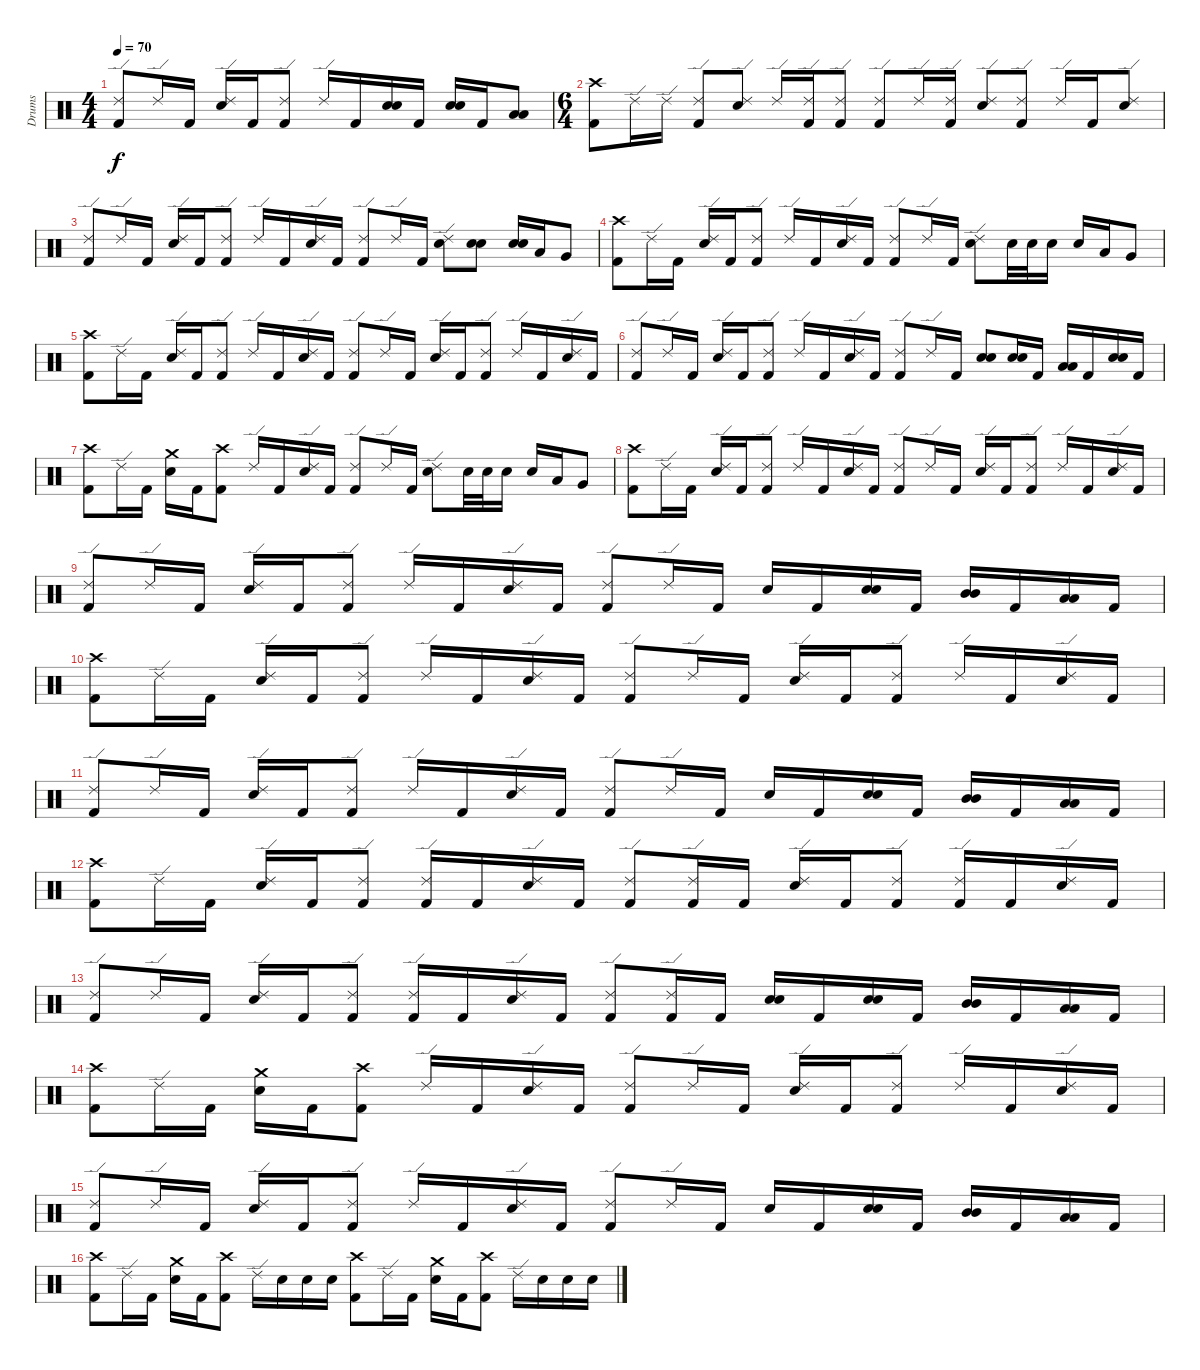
\track ("Drums" "Drums") {instrument percussion}
\staff {score}
\articulation defaults
\ts (4 4)
\tempo 70
\clef neutral
\ks c
("Ride (edge) 2" "Kick (hit) 2").8{dy f} "Ride (edge) 2".16 "Kick (hit) 2".16 ("Ride (edge) 2" "Electric Snare (hit)").16 "Kick (hit) 2".16 ("Ride (edge) 2" "Kick (hit) 2").8 "Ride (edge) 2".16 "Kick (hit) 2".16 ("Electric Snare (hit)" "Electric Snare (hit)").16{bu 60} "Kick (hit) 2".16 ("Electric Snare (hit)" "Electric Snare (hit)").16{bu 60} "Kick (hit) 2".16 ("Low Tom (hit)" "Low Tom (hit)").8{bu 60} |
\ts (6 4)
("Crash high (hit)" "Kick (hit) 2").8 "Ride (edge) 2".16 "Ride (edge) 2".16 ("Ride (edge) 2" "Kick (hit) 2").8 ("Ride (edge) 2" "Electric Snare (hit)").8 "Ride (edge) 2".16 ("Ride (edge) 2" "Kick (hit) 2").16 ("Ride (edge) 2" "Kick (hit) 2").8 ("Ride (edge) 2" "Kick (hit) 2").8 "Ride (edge) 2".16 ("Ride (edge) 2" "Kick (hit) 2").16 ("Ride (edge) 2" "Electric Snare (hit)").8 ("Ride (edge) 2" "Kick (hit) 2").8 "Ride (edge) 2".16 "Kick (hit) 2".16 ("Ride (edge) 2" "Electric Snare (hit)").8 |
("Ride (edge) 2" "Kick (hit) 2").8 "Ride (edge) 2".16 "Kick (hit) 2".16 ("Ride (edge) 2" "Electric Snare (hit)").16 "Kick (hit) 2".16 ("Ride (edge) 2" "Kick (hit) 2").8 "Ride (edge) 2".16 "Kick (hit) 2".16 ("Ride (edge) 2" "Electric Snare (hit)").16 "Kick (hit) 2".16 ("Ride (edge) 2" "Kick (hit) 2").8 "Ride (edge) 2".16 "Kick (hit) 2".16 ("Ride (edge) 2" "Electric Snare (hit)").8 ("Electric Snare (hit)" "Electric Snare (hit)").8{bu 60} ("Electric Snare (hit)" "Electric Snare (hit)").16{bu 60} "Low Tom (hit)".16 "Very Low Tom (hit)".8 |
("Crash high (hit)" "Kick (hit) 2").8 "Ride (edge) 2".16 "Kick (hit) 2".16 ("Ride (edge) 2" "Electric Snare (hit)").16 "Kick (hit) 2".16 ("Ride (edge) 2" "Kick (hit) 2").8 "Ride (edge) 2".16 "Kick (hit) 2".16 ("Ride (edge) 2" "Electric Snare (hit)").16 "Kick (hit) 2".16 ("Ride (edge) 2" "Kick (hit) 2").8 "Ride (edge) 2".16 "Kick (hit) 2".16 ("Ride (edge) 2" "Electric Snare (hit)").8 "Electric Snare (hit)".32 "Electric Snare (hit)".32 "Electric Snare (hit)".16 "Electric Snare (hit)".16 "Low Tom (hit)".16 "Very Low Tom (hit)".8 |
("Crash high (hit)" "Kick (hit) 2").8 "Ride (edge) 2".16 "Kick (hit) 2".16 ("Ride (edge) 2" "Electric Snare (hit)").16 "Kick (hit) 2".16 ("Ride (edge) 2" "Kick (hit) 2").8 "Ride (edge) 2".16 "Kick (hit) 2".16 ("Ride (edge) 2" "Electric Snare (hit)").16 "Kick (hit) 2".16 ("Ride (edge) 2" "Kick (hit) 2").8 "Ride (edge) 2".16 "Kick (hit) 2".16 ("Ride (edge) 2" "Electric Snare (hit)").16 "Kick (hit) 2".16 ("Ride (edge) 2" "Kick (hit) 2").8 "Ride (edge) 2".16 "Kick (hit) 2".16 ("Ride (edge) 2" "Electric Snare (hit)").16 "Kick (hit) 2".16 |
("Ride (edge) 2" "Kick (hit) 2").8 "Ride (edge) 2".16 "Kick (hit) 2".16 ("Ride (edge) 2" "Electric Snare (hit)").16 "Kick (hit) 2".16 ("Ride (edge) 2" "Kick (hit) 2").8 "Ride (edge) 2".16 "Kick (hit) 2".16 ("Ride (edge) 2" "Electric Snare (hit)").16 "Kick (hit) 2".16 ("Ride (edge) 2" "Kick (hit) 2").8 "Ride (edge) 2".16 "Kick (hit) 2".16 ("Electric Snare (hit)" "Electric Snare (hit)").8{bu 60} ("Electric Snare (hit)" "Electric Snare (hit)").16{bu 60} "Kick (hit) 2".16 ("Low Tom (hit)" "Low Tom (hit)").16{bu 60} "Kick (hit) 2".16 ("Electric Snare (hit)" "Electric Snare (hit)").16{bu 60} "Kick (hit) 2".16 |
("Crash high (hit)" "Kick (hit) 2").8 "Ride (edge) 2".16 "Kick (hit) 2".16 ("Crash medium (hit)" "Electric Snare (hit)").16 "Kick (hit) 2".16 ("Crash high (hit)" "Kick (hit) 2").8 "Ride (edge) 2".16 "Kick (hit) 2".16 ("Ride (edge) 2" "Electric Snare (hit)").16 "Kick (hit) 2".16 ("Ride (edge) 2" "Kick (hit) 2").8 "Ride (edge) 2".16 "Kick (hit) 2".16 ("Ride (edge) 2" "Electric Snare (hit)").8 "Electric Snare (hit)".32 "Electric Snare (hit)".32 "Electric Snare (hit)".16 "Electric Snare (hit)".16 "Low Tom (hit)".16 "Very Low Tom (hit)".8 |
("Crash high (hit)" "Kick (hit) 2").8 "Ride (edge) 2".16 "Kick (hit) 2".16 ("Ride (edge) 2" "Electric Snare (hit)").16 "Kick (hit) 2".16 ("Ride (edge) 2" "Kick (hit) 2").8 "Ride (edge) 2".16 "Kick (hit) 2".16 ("Ride (edge) 2" "Electric Snare (hit)").16 "Kick (hit) 2".16 ("Ride (edge) 2" "Kick (hit) 2").8 "Ride (edge) 2".16 "Kick (hit) 2".16 ("Ride (edge) 2" "Electric Snare (hit)").16 "Kick (hit) 2".16 ("Ride (edge) 2" "Kick (hit) 2").8 "Ride (edge) 2".16 "Kick (hit) 2".16 ("Ride (edge) 2" "Electric Snare (hit)").16 "Kick (hit) 2".16 |
("Ride (edge) 2" "Kick (hit) 2").8 "Ride (edge) 2".16 "Kick (hit) 2".16 ("Ride (edge) 2" "Electric Snare (hit)").16 "Kick (hit) 2".16 ("Ride (edge) 2" "Kick (hit) 2").8 "Ride (edge) 2".16 "Kick (hit) 2".16 ("Ride (edge) 2" "Electric Snare (hit)").16 "Kick (hit) 2".16 ("Ride (edge) 2" "Kick (hit) 2").8 "Ride (edge) 2".16 "Kick (hit) 2".16 "Electric Snare (hit)".16 "Kick (hit) 2".16 ("Electric Snare (hit)" "Electric Snare (hit)").16{bu 60} "Kick (hit) 2".16 ("Mid Tom (hit)" "Mid Tom (hit)").16{bu 60} "Kick (hit) 2".16 ("Low Tom (hit)" "Low Tom (hit)").16{bu 60} "Kick (hit) 2".16 |
("Crash high (hit)" "Kick (hit) 2").8 "Ride (edge) 2".16 "Kick (hit) 2".16 ("Ride (edge) 2" "Electric Snare (hit)").16 "Kick (hit) 2".16 ("Ride (edge) 2" "Kick (hit) 2").8 "Ride (edge) 2".16 "Kick (hit) 2".16 ("Ride (edge) 2" "Electric Snare (hit)").16 "Kick (hit) 2".16 ("Ride (edge) 2" "Kick (hit) 2").8 "Ride (edge) 2".16 "Kick (hit) 2".16 ("Ride (edge) 2" "Electric Snare (hit)").16 "Kick (hit) 2".16 ("Ride (edge) 2" "Kick (hit) 2").8 "Ride (edge) 2".16 "Kick (hit) 2".16 ("Ride (edge) 2" "Electric Snare (hit)").16 "Kick (hit) 2".16 |
("Ride (edge) 2" "Kick (hit) 2").8 "Ride (edge) 2".16 "Kick (hit) 2".16 ("Ride (edge) 2" "Electric Snare (hit)").16 "Kick (hit) 2".16 ("Ride (edge) 2" "Kick (hit) 2").8 "Ride (edge) 2".16 "Kick (hit) 2".16 ("Ride (edge) 2" "Electric Snare (hit)").16 "Kick (hit) 2".16 ("Ride (edge) 2" "Kick (hit) 2").8 "Ride (edge) 2".16 "Kick (hit) 2".16 "Electric Snare (hit)".16 "Kick (hit) 2".16 ("Electric Snare (hit)" "Electric Snare (hit)").16{bu 60} "Kick (hit) 2".16 ("Mid Tom (hit)" "Mid Tom (hit)").16{bu 60} "Kick (hit) 2".16 ("Low Tom (hit)" "Low Tom (hit)").16{bu 60} "Kick (hit) 2".16 |
("Crash high (hit)" "Kick (hit) 2").8 "Ride (edge) 2".16 "Kick (hit) 2".16 ("Ride (edge) 2" "Electric Snare (hit)").16 "Kick (hit) 2".16 ("Ride (edge) 2" "Kick (hit) 2").8 ("Ride (edge) 2" "Kick (hit) 2").16 "Kick (hit) 2".16 ("Ride (edge) 2" "Electric Snare (hit)").16 "Kick (hit) 2".16 ("Ride (edge) 2" "Kick (hit) 2").8 ("Ride (edge) 2" "Kick (hit) 2").16 "Kick (hit) 2".16 ("Ride (edge) 2" "Electric Snare (hit)").16 "Kick (hit) 2".16 ("Ride (edge) 2" "Kick (hit) 2").8 ("Ride (edge) 2" "Kick (hit) 2").16 "Kick (hit) 2".16 ("Ride (edge) 2" "Electric Snare (hit)").16 "Kick (hit) 2".16 |
("Ride (edge) 2" "Kick (hit) 2").8 "Ride (edge) 2".16 "Kick (hit) 2".16 ("Ride (edge) 2" "Electric Snare (hit)").16 "Kick (hit) 2".16 ("Ride (edge) 2" "Kick (hit) 2").8 ("Ride (edge) 2" "Kick (hit) 2").16 "Kick (hit) 2".16 ("Ride (edge) 2" "Electric Snare (hit)").16 "Kick (hit) 2".16 ("Ride (edge) 2" "Kick (hit) 2").8 ("Ride (edge) 2" "Kick (hit) 2").16 "Kick (hit) 2".16 ("Electric Snare (hit)" "Electric Snare (hit)").16{bu 60} "Kick (hit) 2".16 ("Electric Snare (hit)" "Electric Snare (hit)").16{bu 60} "Kick (hit) 2".16 ("Mid Tom (hit)" "Mid Tom (hit)").16{bu 60} "Kick (hit) 2".16 ("Low Tom (hit)" "Low Tom (hit)").16{bu 60} "Kick (hit) 2".16 |
("Crash high (hit)" "Kick (hit) 2").8 "Ride (edge) 2".16 "Kick (hit) 2".16 ("Crash medium (hit)" "Electric Snare (hit)").16 "Kick (hit) 2".16 ("Crash high (hit)" "Kick (hit) 2").8 "Ride (edge) 2".16 "Kick (hit) 2".16 ("Ride (edge) 2" "Electric Snare (hit)").16 "Kick (hit) 2".16 ("Ride (edge) 2" "Kick (hit) 2").8 "Ride (edge) 2".16 "Kick (hit) 2".16 ("Ride (edge) 2" "Electric Snare (hit)").16 "Kick (hit) 2".16 ("Ride (edge) 2" "Kick (hit) 2").8 "Ride (edge) 2".16 "Kick (hit) 2".16 ("Ride (edge) 2" "Electric Snare (hit)").16 "Kick (hit) 2".16 |
("Ride (edge) 2" "Kick (hit) 2").8 "Ride (edge) 2".16 "Kick (hit) 2".16 ("Ride (edge) 2" "Electric Snare (hit)").16 "Kick (hit) 2".16 ("Ride (edge) 2" "Kick (hit) 2").8 "Ride (edge) 2".16 "Kick (hit) 2".16 ("Ride (edge) 2" "Electric Snare (hit)").16 "Kick (hit) 2".16 ("Ride (edge) 2" "Kick (hit) 2").8 "Ride (edge) 2".16 "Kick (hit) 2".16 "Electric Snare (hit)".16 "Kick (hit) 2".16 ("Electric Snare (hit)" "Electric Snare (hit)").16{bu 60} "Kick (hit) 2".16 ("Mid Tom (hit)" "Mid Tom (hit)").16{bu 60} "Kick (hit) 2".16 ("Low Tom (hit)" "Low Tom (hit)").16{bu 60} "Kick (hit) 2".16 |
("Crash high (hit)" "Kick (hit) 2").8 "Ride (edge) 2".16 "Kick (hit) 2".16 ("Crash medium (hit)" "Electric Snare (hit)").16 "Kick (hit) 2".16 ("Crash high (hit)" "Kick (hit) 2").8 "Ride (edge) 2".16 "Electric Snare (hit)".16 "Electric Snare (hit)".16 "Electric Snare (hit)".16 ("Crash high (hit)" "Kick (hit) 2").8 "Ride (edge) 2".16 "Kick (hit) 2".16 ("Crash medium (hit)" "Electric Snare (hit)").16 "Kick (hit) 2".16 ("Crash high (hit)" "Kick (hit) 2").8 "Ride (edge) 2".16 "Electric Snare (hit)".16 "Electric Snare (hit)".16 "Electric Snare (hit)".16
